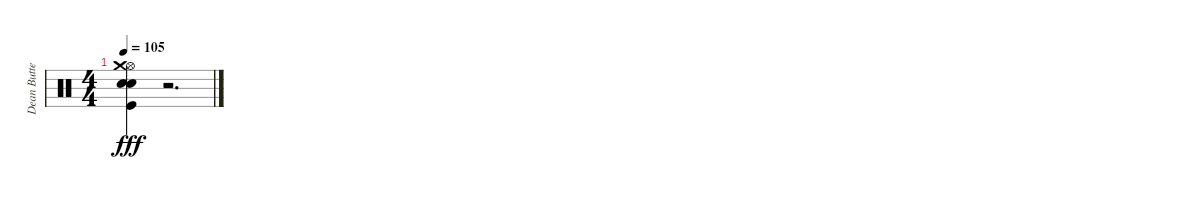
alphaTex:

\track ("Dean Butterworth" "Dean Butte") {instrument percussion}
\staff {score}
\articulation defaults
\ts (4 4)
\tempo 105
\clef neutral
\ks c
("Electric Snare (hit)" "Snare (hit) 2" "Hi-Hat (open)" "Kick (hit)" "Crash medium (hit)").4{dy fff} r.2{d}
